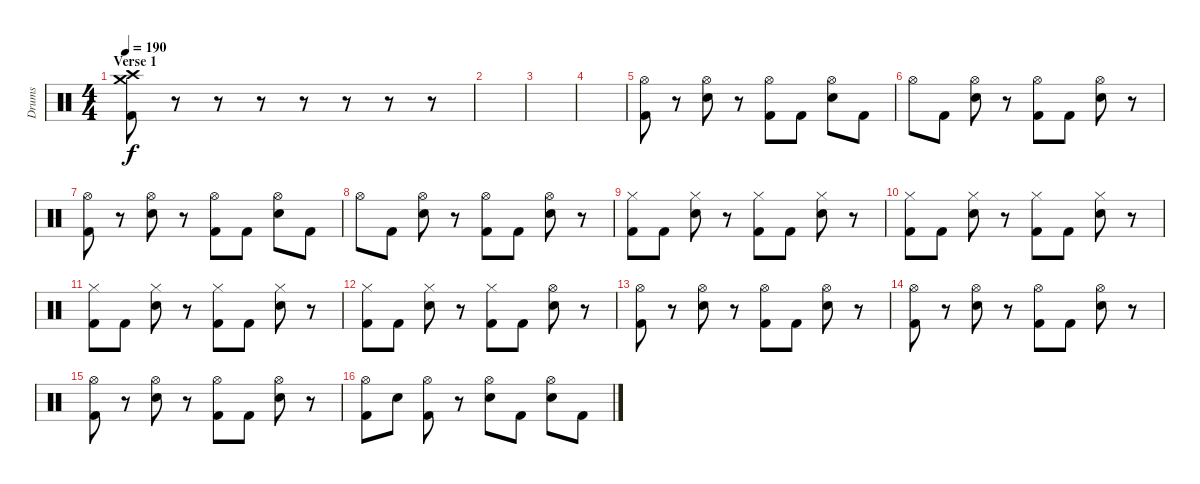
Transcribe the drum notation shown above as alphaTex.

\track ("Drums" "Drums") {instrument percussion}
\staff {score}
\articulation defaults
\ts (4 4)
\section ("" "Verse 1")
\tempo 190
\clef neutral
\ks c
("Kick (hit) 2" "Crash medium (hit)" "Crash high (hit)").8{dy f} r.8 r.8 r.8 r.8 r.8 r.8 r.8 |
|
|
|
("Kick (hit) 2" "Hi-Hat (open)").8 r.8 ("Electric Snare (hit)" "Hi-Hat (open)").8 r.8 ("Kick (hit) 2" "Hi-Hat (open)").8 "Kick (hit) 2".8 ("Electric Snare (hit)" "Hi-Hat (open)").8 "Kick (hit) 2".8 |
"Hi-Hat (open)".8 "Kick (hit) 2".8 ("Electric Snare (hit)" "Hi-Hat (open)").8 r.8 ("Kick (hit) 2" "Hi-Hat (open)").8 "Kick (hit) 2".8 ("Electric Snare (hit)" "Hi-Hat (open)").8 r.8 |
("Kick (hit) 2" "Hi-Hat (open)").8 r.8 ("Electric Snare (hit)" "Hi-Hat (open)").8 r.8 ("Kick (hit) 2" "Hi-Hat (open)").8 "Kick (hit) 2".8 ("Electric Snare (hit)" "Hi-Hat (open)").8 "Kick (hit) 2".8 |
"Hi-Hat (open)".8 "Kick (hit) 2".8 ("Electric Snare (hit)" "Hi-Hat (open)").8 r.8 ("Kick (hit) 2" "Hi-Hat (open)").8 "Kick (hit) 2".8 ("Electric Snare (hit)" "Hi-Hat (open)").8 r.8 |
("Kick (hit) 2" "Hi-Hat (closed)").8 "Kick (hit) 2".8 ("Electric Snare (hit)" "Hi-Hat (closed)").8 r.8 ("Kick (hit) 2" "Hi-Hat (closed)").8 "Kick (hit) 2".8 ("Electric Snare (hit)" "Hi-Hat (closed)").8 r.8 |
("Kick (hit) 2" "Hi-Hat (closed)").8 "Kick (hit) 2".8 ("Electric Snare (hit)" "Hi-Hat (closed)").8 r.8 ("Kick (hit) 2" "Hi-Hat (closed)").8 "Kick (hit) 2".8 ("Electric Snare (hit)" "Hi-Hat (closed)").8 r.8 |
("Kick (hit) 2" "Hi-Hat (closed)").8 "Kick (hit) 2".8 ("Electric Snare (hit)" "Hi-Hat (closed)").8 r.8 ("Kick (hit) 2" "Hi-Hat (closed)").8 "Kick (hit) 2".8 ("Electric Snare (hit)" "Hi-Hat (closed)").8 r.8 |
("Kick (hit) 2" "Hi-Hat (closed)").8 "Kick (hit) 2".8 ("Electric Snare (hit)" "Hi-Hat (closed)").8 r.8 ("Kick (hit) 2" "Hi-Hat (closed)").8 "Kick (hit) 2".8 ("Electric Snare (hit)" "Hi-Hat (open)").8 r.8 |
("Kick (hit) 2" "Hi-Hat (open)").8 r.8 ("Electric Snare (hit)" "Hi-Hat (open)").8 r.8 ("Kick (hit) 2" "Hi-Hat (open)").8 "Kick (hit) 2".8 ("Electric Snare (hit)" "Hi-Hat (open)").8 r.8 |
("Kick (hit) 2" "Hi-Hat (open)").8 r.8 ("Electric Snare (hit)" "Hi-Hat (open)").8 r.8 ("Kick (hit) 2" "Hi-Hat (open)").8 "Kick (hit) 2".8 ("Electric Snare (hit)" "Hi-Hat (open)").8 r.8 |
("Kick (hit) 2" "Hi-Hat (open)").8 r.8 ("Electric Snare (hit)" "Hi-Hat (open)").8 r.8 ("Kick (hit) 2" "Hi-Hat (open)").8 "Kick (hit) 2".8 ("Electric Snare (hit)" "Hi-Hat (open)").8 r.8 |
("Kick (hit) 2" "Hi-Hat (open)").8 "Electric Snare (hit)".8 ("Kick (hit) 2" "Hi-Hat (open)").8 r.8 ("Electric Snare (hit)" "Hi-Hat (open)").8 "Kick (hit) 2".8 ("Electric Snare (hit)" "Hi-Hat (open)").8 "Kick (hit) 2".8
